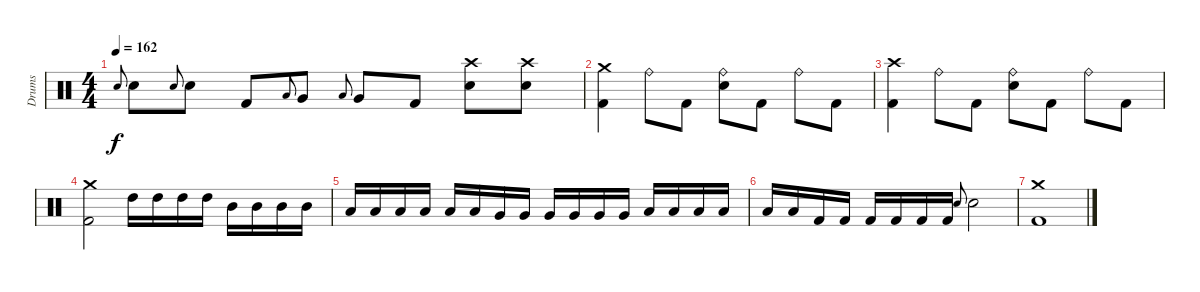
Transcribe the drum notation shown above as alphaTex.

\track ("Drums" "Drums") {instrument percussion}
\staff {score}
\articulation defaults
\ts (4 4)
\tempo 162
\clef neutral
\ks c "Snare (hit) 2".8{gr onbeat dy f} "Snare (hit) 2".8 "Snare (hit) 2".8{gr onbeat} "Snare (hit) 2".8 "Kick (hit) 2".8 "Low Floor Tom (hit)".8{gr onbeat} "Very Low Tom (hit)".8 "Low Floor Tom (hit)".8{gr onbeat} "Very Low Tom (hit)".8 "Kick (hit) 2".8
("Crash high (hit)" "Snare (hit) 2").8 ("Crash high (hit)" "Snare (hit) 2").8 |
("Crash medium (hit)" "Kick (hit) 2").4 "Ride (bell)".8 "Kick (hit) 2".8 ("Ride (bell)" "Snare (hit) 2").8 "Kick (hit) 2".8 "Ride (bell)".8 "Kick (hit) 2".8 |
("Crash high (hit)" "Kick (hit) 2").4 "Ride (bell)".8 "Kick (hit) 2".8 ("Ride (bell)" "Snare (hit) 2").8 "Kick (hit) 2".8 "Ride (bell)".8 "Kick (hit) 2".8 |
("Crash medium (hit)" "Kick (hit) 2").2 "High Tom (hit)".16 "High Tom (hit)".16 "High Tom (hit)".16 "High Tom (hit)".16 "Mid Tom (hit)".16 "Mid Tom (hit)".16 "Mid Tom (hit)".16 "Mid Tom (hit)".16 |
"Low Tom (hit)".16 "Low Tom (hit)".16 "Low Tom (hit)".16 "Low Tom (hit)".16 "Low Tom (hit)".16 "Low Tom (hit)".16 "Very Low Tom (hit)".16 "Very Low Tom (hit)".16 "Very Low Tom (hit)".16 "Very Low Tom (hit)".16 "Very Low Tom (hit)".16 "Very Low Tom (hit)".16 "Low Floor Tom (hit)".16 "Low Floor Tom (hit)".16 "Low Floor Tom (hit)".16 "Low Floor Tom (hit)".16 |
"Low Floor Tom (hit)".16 "Low Floor Tom (hit)".16 "Kick (hit) 2".16 "Kick (hit) 2".16 "Kick (hit) 2".16 "Kick (hit) 2".16 "Kick (hit) 2".16 "Kick (hit) 2".16 "Snare (hit) 2".8{gr onbeat} "Snare (hit) 2".2 |
("Crash medium (hit)" "Kick (hit) 2").1
